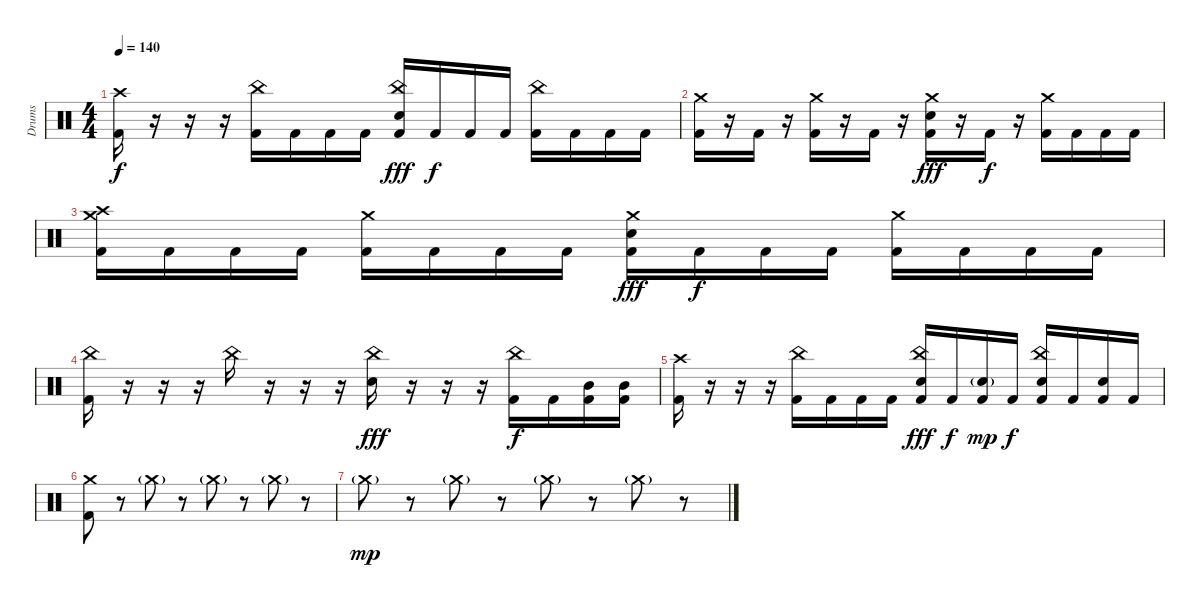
\track ("Drums" "Drums") {instrument percussion}
\staff {score}
\articulation defaults
\ts (4 4)
\tempo 140
\clef neutral
\ks c
("Crash high (hit)" "Kick (hit) 2").16{dy f} r.16 r.16 r.16 ("China (hit)" "Kick (hit) 2").16 "Kick (hit) 2".16 "Kick (hit) 2".16 "Kick (hit) 2".16 ("China (hit)" "Snare (hit) 2" "Kick (hit) 2").16{dy fff} "Kick (hit) 2".16{dy f} "Kick (hit) 2".16 "Kick (hit) 2".16 ("China (hit)" "Kick (hit) 2").16 "Kick (hit) 2".16 "Kick (hit) 2".16 "Kick (hit) 2".16 |
("Crash medium (hit)" "Kick (hit) 2").16 r.16 "Kick (hit) 2".16 r.16 ("Crash medium (hit)" "Kick (hit) 2").16 r.16 "Kick (hit) 2".16 r.16 ("Crash medium (hit)" "Snare (hit) 2" "Kick (hit) 2").16{dy fff} r.16 "Kick (hit) 2".16{dy f} r.16 ("Crash medium (hit)" "Kick (hit) 2").16 "Kick (hit) 2".16 "Kick (hit) 2".16 "Kick (hit) 2".16 |
("Crash medium (hit)" "Crash high (hit)" "Kick (hit) 2").16 "Kick (hit) 2".16 "Kick (hit) 2".16 "Kick (hit) 2".16 ("Crash medium (hit)" "Kick (hit) 2").16 "Kick (hit) 2".16 "Kick (hit) 2".16 "Kick (hit) 2".16 ("Crash medium (hit)" "Snare (hit) 2" "Kick (hit) 2").16{dy fff} "Kick (hit) 2".16{dy f} "Kick (hit) 2".16 "Kick (hit) 2".16 ("Crash medium (hit)" "Kick (hit) 2").16 "Kick (hit) 2".16 "Kick (hit) 2".16 "Kick (hit) 2".16 |
("China (hit)" "Kick (hit) 2").16 r.16 r.16 r.16 "China (hit)".16 r.16 r.16 r.16 ("China (hit)" "Snare (hit) 2").16{dy fff} r.16 r.16 r.16 ("China (hit)" "Kick (hit) 2").16{dy f} "Kick (hit) 2".16 ("Mid Tom (hit)" "Kick (hit) 2").16 ("Mid Tom (hit)" "Kick (hit) 2").16 |
("Crash high (hit)" "Kick (hit) 2").16 r.16 r.16 r.16 ("China (hit)" "Kick (hit) 2").16 "Kick (hit) 2".16 "Kick (hit) 2".16 "Kick (hit) 2".16 ("China (hit)" "Snare (hit) 2" "Kick (hit) 2").16{dy fff} "Kick (hit) 2".16{dy f} ("Snare (hit) 2"{g} "Kick (hit) 2").16{dy mp} "Kick (hit) 2".16{dy f} ("China (hit)" "Snare (hit) 2" "Kick (hit) 2").16 "Kick (hit) 2".16 ("Snare (hit) 2" "Kick (hit) 2").16 "Kick (hit) 2".16 |
("Crash medium (hit)" "Kick (hit) 2").8 r.8 "Crash medium (hit)"{g}.8 r.8 "Crash medium (hit)"{g}.8 r.8 "Crash medium (hit)"{g}.8 r.8 |
"Crash medium (hit)"{g}.8{dy mp} r.8 "Crash medium (hit)"{g}.8 r.8 "Crash medium (hit)"{g}.8 r.8 "Crash medium (hit)"{g}.8 r.8
